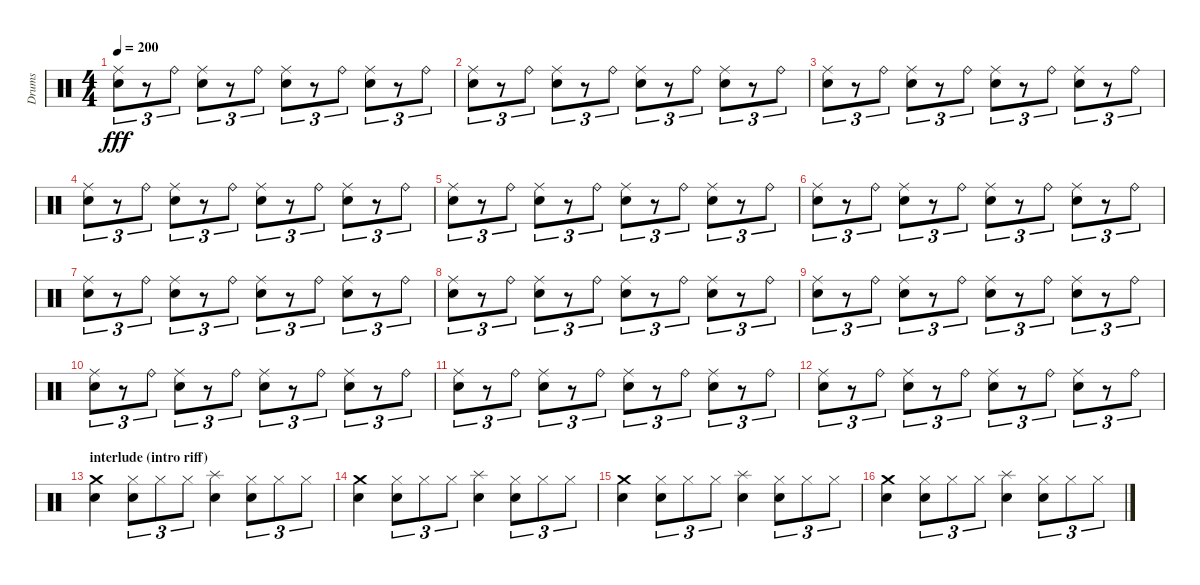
\track ("Drums" "Drums") {instrument percussion}
\staff {score}
\articulation defaults
\ts (4 4)
\tempo 200
\clef neutral
\ks c
("Electric Snare (hit)" "Ride (middle)").8{tu (3 2) dy fff} r.8{tu (3 2)} "Ride (bell)".8{tu (3 2)} ("Electric Snare (hit)" "Ride (middle)").8{tu (3 2)} r.8{tu (3 2)} "Ride (bell)".8{tu (3 2)} ("Electric Snare (hit)" "Ride (middle)").8{tu (3 2)} r.8{tu (3 2)} "Ride (bell)".8{tu (3 2)} ("Electric Snare (hit)" "Ride (middle)").8{tu (3 2)} r.8{tu (3 2)} "Ride (bell)".8{tu (3 2)} |
("Electric Snare (hit)" "Ride (middle)").8{tu (3 2)} r.8{tu (3 2)} "Ride (bell)".8{tu (3 2)} ("Electric Snare (hit)" "Ride (middle)").8{tu (3 2)} r.8{tu (3 2)} "Ride (bell)".8{tu (3 2)} ("Electric Snare (hit)" "Ride (middle)").8{tu (3 2)} r.8{tu (3 2)} "Ride (bell)".8{tu (3 2)} ("Electric Snare (hit)" "Ride (middle)").8{tu (3 2)} r.8{tu (3 2)} "Ride (bell)".8{tu (3 2)} |
("Electric Snare (hit)" "Ride (middle)").8{tu (3 2)} r.8{tu (3 2)} "Ride (bell)".8{tu (3 2)} ("Electric Snare (hit)" "Ride (middle)").8{tu (3 2)} r.8{tu (3 2)} "Ride (bell)".8{tu (3 2)} ("Electric Snare (hit)" "Ride (middle)").8{tu (3 2)} r.8{tu (3 2)} "Ride (bell)".8{tu (3 2)} ("Electric Snare (hit)" "Ride (middle)").8{tu (3 2)} r.8{tu (3 2)} "Ride (bell)".8{tu (3 2)} |
("Electric Snare (hit)" "Ride (middle)").8{tu (3 2)} r.8{tu (3 2)} "Ride (bell)".8{tu (3 2)} ("Electric Snare (hit)" "Ride (middle)").8{tu (3 2)} r.8{tu (3 2)} "Ride (bell)".8{tu (3 2)} ("Electric Snare (hit)" "Ride (middle)").8{tu (3 2)} r.8{tu (3 2)} "Ride (bell)".8{tu (3 2)} ("Electric Snare (hit)" "Ride (middle)").8{tu (3 2)} r.8{tu (3 2)} "Ride (bell)".8{tu (3 2)} |
("Electric Snare (hit)" "Ride (middle)").8{tu (3 2)} r.8{tu (3 2)} "Ride (bell)".8{tu (3 2)} ("Electric Snare (hit)" "Ride (middle)").8{tu (3 2)} r.8{tu (3 2)} "Ride (bell)".8{tu (3 2)} ("Electric Snare (hit)" "Ride (middle)").8{tu (3 2)} r.8{tu (3 2)} "Ride (bell)".8{tu (3 2)} ("Electric Snare (hit)" "Ride (middle)").8{tu (3 2)} r.8{tu (3 2)} "Ride (bell)".8{tu (3 2)} |
("Electric Snare (hit)" "Ride (middle)").8{tu (3 2)} r.8{tu (3 2)} "Ride (bell)".8{tu (3 2)} ("Electric Snare (hit)" "Ride (middle)").8{tu (3 2)} r.8{tu (3 2)} "Ride (bell)".8{tu (3 2)} ("Electric Snare (hit)" "Ride (middle)").8{tu (3 2)} r.8{tu (3 2)} "Ride (bell)".8{tu (3 2)} ("Electric Snare (hit)" "Ride (middle)").8{tu (3 2)} r.8{tu (3 2)} "Ride (bell)".8{tu (3 2)} |
("Electric Snare (hit)" "Ride (middle)").8{tu (3 2)} r.8{tu (3 2)} "Ride (bell)".8{tu (3 2)} ("Electric Snare (hit)" "Ride (middle)").8{tu (3 2)} r.8{tu (3 2)} "Ride (bell)".8{tu (3 2)} ("Electric Snare (hit)" "Ride (middle)").8{tu (3 2)} r.8{tu (3 2)} "Ride (bell)".8{tu (3 2)} ("Electric Snare (hit)" "Ride (middle)").8{tu (3 2)} r.8{tu (3 2)} "Ride (bell)".8{tu (3 2)} |
("Electric Snare (hit)" "Ride (middle)").8{tu (3 2)} r.8{tu (3 2)} "Ride (bell)".8{tu (3 2)} ("Electric Snare (hit)" "Ride (middle)").8{tu (3 2)} r.8{tu (3 2)} "Ride (bell)".8{tu (3 2)} ("Electric Snare (hit)" "Ride (middle)").8{tu (3 2)} r.8{tu (3 2)} "Ride (bell)".8{tu (3 2)} ("Electric Snare (hit)" "Ride (middle)").8{tu (3 2)} r.8{tu (3 2)} "Ride (bell)".8{tu (3 2)} |
("Electric Snare (hit)" "Ride (middle)").8{tu (3 2)} r.8{tu (3 2)} "Ride (bell)".8{tu (3 2)} ("Electric Snare (hit)" "Ride (middle)").8{tu (3 2)} r.8{tu (3 2)} "Ride (bell)".8{tu (3 2)} ("Electric Snare (hit)" "Ride (middle)").8{tu (3 2)} r.8{tu (3 2)} "Ride (bell)".8{tu (3 2)} ("Electric Snare (hit)" "Ride (middle)").8{tu (3 2)} r.8{tu (3 2)} "Ride (bell)".8{tu (3 2)} |
("Electric Snare (hit)" "Ride (middle)").8{tu (3 2)} r.8{tu (3 2)} "Ride (bell)".8{tu (3 2)} ("Electric Snare (hit)" "Ride (middle)").8{tu (3 2)} r.8{tu (3 2)} "Ride (bell)".8{tu (3 2)} ("Electric Snare (hit)" "Ride (middle)").8{tu (3 2)} r.8{tu (3 2)} "Ride (bell)".8{tu (3 2)} ("Electric Snare (hit)" "Ride (middle)").8{tu (3 2)} r.8{tu (3 2)} "Ride (bell)".8{tu (3 2)} |
("Electric Snare (hit)" "Ride (middle)").8{tu (3 2)} r.8{tu (3 2)} "Ride (bell)".8{tu (3 2)} ("Electric Snare (hit)" "Ride (middle)").8{tu (3 2)} r.8{tu (3 2)} "Ride (bell)".8{tu (3 2)} ("Electric Snare (hit)" "Ride (middle)").8{tu (3 2)} r.8{tu (3 2)} "Ride (bell)".8{tu (3 2)} ("Electric Snare (hit)" "Ride (middle)").8{tu (3 2)} r.8{tu (3 2)} "Ride (bell)".8{tu (3 2)} |
("Electric Snare (hit)" "Ride (middle)").8{tu (3 2)} r.8{tu (3 2)} "Ride (bell)".8{tu (3 2)} ("Electric Snare (hit)" "Ride (middle)").8{tu (3 2)} r.8{tu (3 2)} "Ride (bell)".8{tu (3 2)} ("Electric Snare (hit)" "Ride (middle)").8{tu (3 2)} r.8{tu (3 2)} "Ride (bell)".8{tu (3 2)} ("Electric Snare (hit)" "Ride (middle)").8{tu (3 2)} r.8{tu (3 2)} "Ride (bell)".8{tu (3 2)} |
\section ("" "interlude (intro riff)")
("Electric Snare (hit)" "Crash medium (hit)").4 ("Hi-Hat (closed)" "Electric Snare (hit)").8{tu (3 2)} "Hi-Hat (closed)".8{tu (3 2)} "Hi-Hat (closed)".8{tu (3 2)} ("Electric Snare (hit)" "Splash (hit)").4 ("Hi-Hat (closed)" "Electric Snare (hit)").8{tu (3 2)} "Hi-Hat (closed)".8{tu (3 2)} "Hi-Hat (closed)".8{tu (3 2)} |
("Electric Snare (hit)" "Crash medium (hit)").4 ("Hi-Hat (closed)" "Electric Snare (hit)").8{tu (3 2)} "Hi-Hat (closed)".8{tu (3 2)} "Hi-Hat (closed)".8{tu (3 2)} ("Electric Snare (hit)" "Splash (hit)").4 ("Hi-Hat (closed)" "Electric Snare (hit)").8{tu (3 2)} "Hi-Hat (closed)".8{tu (3 2)} "Hi-Hat (closed)".8{tu (3 2)} |
("Electric Snare (hit)" "Crash medium (hit)").4 ("Hi-Hat (closed)" "Electric Snare (hit)").8{tu (3 2)} "Hi-Hat (closed)".8{tu (3 2)} "Hi-Hat (closed)".8{tu (3 2)} ("Electric Snare (hit)" "Splash (hit)").4 ("Hi-Hat (closed)" "Electric Snare (hit)").8{tu (3 2)} "Hi-Hat (closed)".8{tu (3 2)} "Hi-Hat (closed)".8{tu (3 2)} |
("Electric Snare (hit)" "Crash medium (hit)").4 ("Hi-Hat (closed)" "Electric Snare (hit)").8{tu (3 2)} "Hi-Hat (closed)".8{tu (3 2)} "Hi-Hat (closed)".8{tu (3 2)} ("Electric Snare (hit)" "Splash (hit)").4 ("Hi-Hat (closed)" "Electric Snare (hit)").8{tu (3 2)} "Hi-Hat (closed)".8{tu (3 2)} "Hi-Hat (closed)".8{tu (3 2)}
